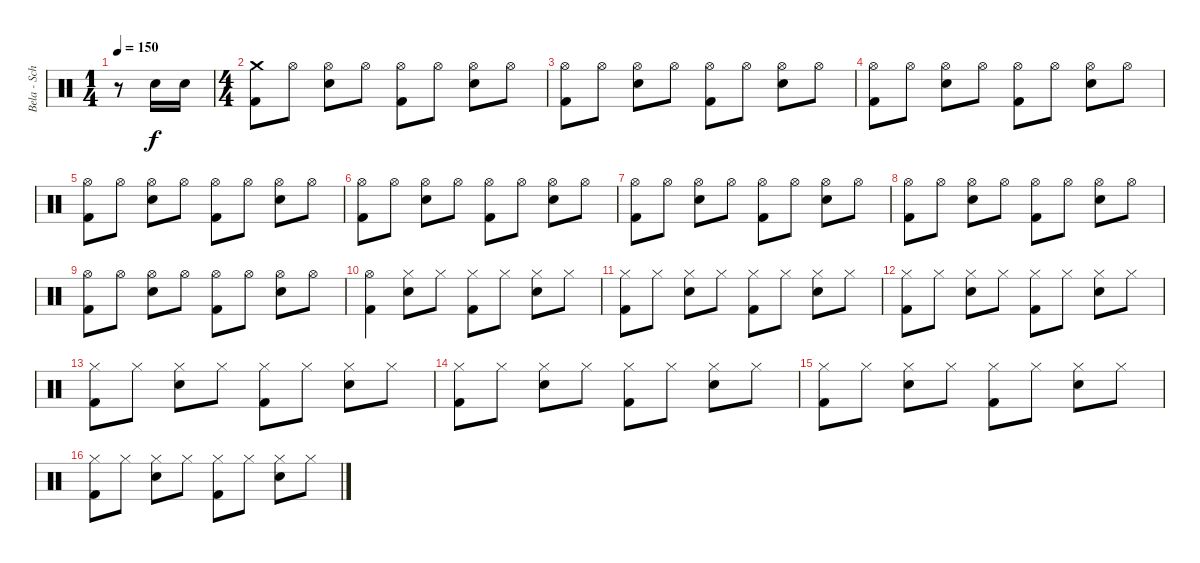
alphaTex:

\track ("Bela - Schlagzeug" "Bela - Sch") {instrument percussion}
\staff {score}
\articulation defaults
\ts (1 4)
\tempo 150
\clef neutral
\ks c
r.8{dy f} "Snare (hit) 2".16 "Snare (hit) 2".16 |
\ts (4 4)
("Crash medium (hit)" "Kick (hit) 2").8 "Hi-Hat (open)".8 ("Hi-Hat (open)" "Snare (hit) 2").8 "Hi-Hat (open)".8 ("Hi-Hat (open)" "Kick (hit) 2").8 "Hi-Hat (open)".8 ("Hi-Hat (open)" "Snare (hit) 2").8 "Hi-Hat (open)".8 |
("Hi-Hat (open)" "Kick (hit) 2").8 "Hi-Hat (open)".8 ("Hi-Hat (open)" "Snare (hit) 2").8 "Hi-Hat (open)".8 ("Hi-Hat (open)" "Kick (hit) 2").8 "Hi-Hat (open)".8 ("Hi-Hat (open)" "Snare (hit) 2").8 "Hi-Hat (open)".8 |
("Hi-Hat (open)" "Kick (hit) 2").8 "Hi-Hat (open)".8 ("Hi-Hat (open)" "Snare (hit) 2").8 "Hi-Hat (open)".8 ("Hi-Hat (open)" "Kick (hit) 2").8 "Hi-Hat (open)".8 ("Hi-Hat (open)" "Snare (hit) 2").8 "Hi-Hat (open)".8 |
("Hi-Hat (open)" "Kick (hit) 2").8 "Hi-Hat (open)".8 ("Hi-Hat (open)" "Snare (hit) 2").8 "Hi-Hat (open)".8 ("Hi-Hat (open)" "Kick (hit) 2").8 "Hi-Hat (open)".8 ("Hi-Hat (open)" "Snare (hit) 2").8 "Hi-Hat (open)".8 |
("Hi-Hat (open)" "Kick (hit) 2").8 "Hi-Hat (open)".8 ("Hi-Hat (open)" "Snare (hit) 2").8 "Hi-Hat (open)".8 ("Hi-Hat (open)" "Kick (hit) 2").8 "Hi-Hat (open)".8 ("Hi-Hat (open)" "Snare (hit) 2").8 "Hi-Hat (open)".8 |
("Hi-Hat (open)" "Kick (hit) 2").8 "Hi-Hat (open)".8 ("Hi-Hat (open)" "Snare (hit) 2").8 "Hi-Hat (open)".8 ("Hi-Hat (open)" "Kick (hit) 2").8 "Hi-Hat (open)".8 ("Hi-Hat (open)" "Snare (hit) 2").8 "Hi-Hat (open)".8 |
("Hi-Hat (open)" "Kick (hit) 2").8 "Hi-Hat (open)".8 ("Hi-Hat (open)" "Snare (hit) 2").8 "Hi-Hat (open)".8 ("Hi-Hat (open)" "Kick (hit) 2").8 "Hi-Hat (open)".8 ("Hi-Hat (open)" "Snare (hit) 2").8 "Hi-Hat (open)".8 |
("Hi-Hat (open)" "Kick (hit) 2").8 "Hi-Hat (open)".8 ("Hi-Hat (open)" "Snare (hit) 2").8 "Hi-Hat (open)".8 ("Hi-Hat (open)" "Kick (hit) 2").8 "Hi-Hat (open)".8 ("Hi-Hat (open)" "Snare (hit) 2").8 "Hi-Hat (open)".8 |
("Hi-Hat (open)" "Kick (hit) 2").4 ("Hi-Hat (closed)" "Snare (hit) 2").8 "Hi-Hat (closed)".8 ("Hi-Hat (closed)" "Kick (hit) 2").8 "Hi-Hat (closed)".8 ("Hi-Hat (closed)" "Snare (hit) 2").8 "Hi-Hat (closed)".8 |
("Hi-Hat (closed)" "Kick (hit) 2").8 "Hi-Hat (closed)".8 ("Hi-Hat (closed)" "Snare (hit) 2").8 "Hi-Hat (closed)".8 ("Hi-Hat (closed)" "Kick (hit) 2").8 "Hi-Hat (closed)".8 ("Hi-Hat (closed)" "Snare (hit) 2").8 "Hi-Hat (closed)".8 |
("Hi-Hat (closed)" "Kick (hit) 2").8 "Hi-Hat (closed)".8 ("Hi-Hat (closed)" "Snare (hit) 2").8 "Hi-Hat (closed)".8 ("Hi-Hat (closed)" "Kick (hit) 2").8 "Hi-Hat (closed)".8 ("Hi-Hat (closed)" "Snare (hit) 2").8 "Hi-Hat (closed)".8 |
("Hi-Hat (closed)" "Kick (hit) 2").8 "Hi-Hat (closed)".8 ("Hi-Hat (closed)" "Snare (hit) 2").8 "Hi-Hat (closed)".8 ("Hi-Hat (closed)" "Kick (hit) 2").8 "Hi-Hat (closed)".8 ("Hi-Hat (closed)" "Snare (hit) 2").8 "Hi-Hat (closed)".8 |
("Hi-Hat (closed)" "Kick (hit) 2").8 "Hi-Hat (closed)".8 ("Hi-Hat (closed)" "Snare (hit) 2").8 "Hi-Hat (closed)".8 ("Hi-Hat (closed)" "Kick (hit) 2").8 "Hi-Hat (closed)".8 ("Hi-Hat (closed)" "Snare (hit) 2").8 "Hi-Hat (closed)".8 |
("Hi-Hat (closed)" "Kick (hit) 2").8 "Hi-Hat (closed)".8 ("Hi-Hat (closed)" "Snare (hit) 2").8 "Hi-Hat (closed)".8 ("Hi-Hat (closed)" "Kick (hit) 2").8 "Hi-Hat (closed)".8 ("Hi-Hat (closed)" "Snare (hit) 2").8 "Hi-Hat (closed)".8 |
("Hi-Hat (closed)" "Kick (hit) 2").8 "Hi-Hat (closed)".8 ("Hi-Hat (closed)" "Snare (hit) 2").8 "Hi-Hat (closed)".8 ("Hi-Hat (closed)" "Kick (hit) 2").8 "Hi-Hat (closed)".8 ("Hi-Hat (closed)" "Snare (hit) 2").8 "Hi-Hat (closed)".8
